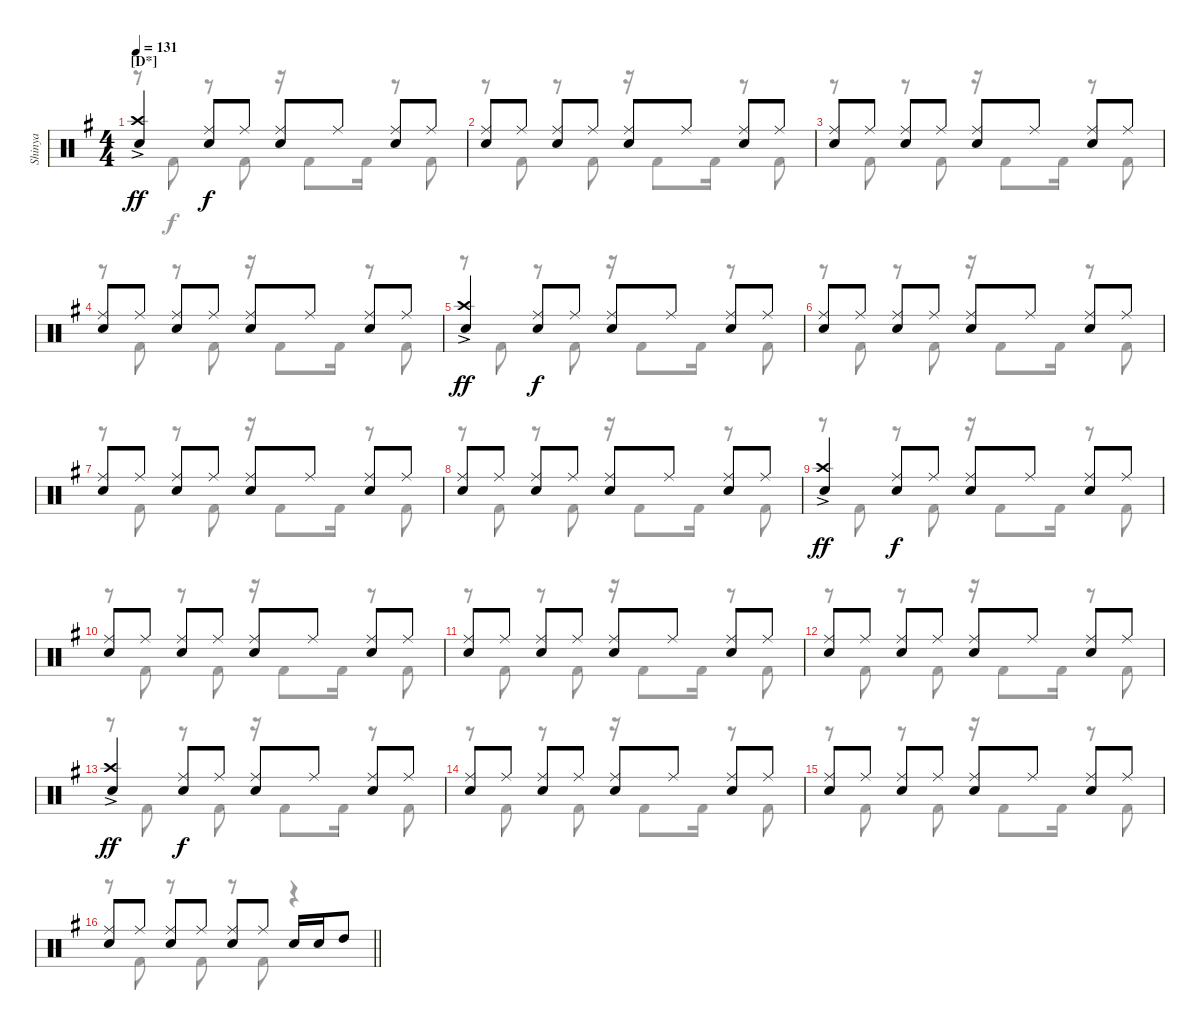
\track ("Shinya" "Shinya") {instrument percussion}
\staff {score}
\articulation defaults
\voice
\ts (4 4)
\section ("" "[D*]")
\tempo 131
\clef neutral
\ks eminor
("Crash high (hit)"{ac} "Snare (hit) 2").4{dy ff} ("Ride (middle)" "Snare (hit) 2").8{dy f} "Ride (middle)".8 ("Ride (middle)" "Snare (hit) 2").8 "Ride (middle)".8 ("Ride (middle)" "Snare (hit) 2").8 "Ride (middle)".8 |
("Ride (middle)" "Snare (hit) 2").8 "Ride (middle)".8 ("Ride (middle)" "Snare (hit) 2").8 "Ride (middle)".8 ("Ride (middle)" "Snare (hit) 2").8 "Ride (middle)".8 ("Ride (middle)" "Snare (hit) 2").8 "Ride (middle)".8 |
("Ride (middle)" "Snare (hit) 2").8 "Ride (middle)".8 ("Ride (middle)" "Snare (hit) 2").8 "Ride (middle)".8 ("Ride (middle)" "Snare (hit) 2").8 "Ride (middle)".8 ("Ride (middle)" "Snare (hit) 2").8 "Ride (middle)".8 |
("Ride (middle)" "Snare (hit) 2").8 "Ride (middle)".8 ("Ride (middle)" "Snare (hit) 2").8 "Ride (middle)".8 ("Ride (middle)" "Snare (hit) 2").8 "Ride (middle)".8 ("Ride (middle)" "Snare (hit) 2").8 "Ride (middle)".8 |
("Crash high (hit)"{ac} "Snare (hit) 2").4{dy ff} ("Ride (middle)" "Snare (hit) 2").8{dy f} "Ride (middle)".8 ("Ride (middle)" "Snare (hit) 2").8 "Ride (middle)".8 ("Ride (middle)" "Snare (hit) 2").8 "Ride (middle)".8 |
("Ride (middle)" "Snare (hit) 2").8 "Ride (middle)".8 ("Ride (middle)" "Snare (hit) 2").8 "Ride (middle)".8 ("Ride (middle)" "Snare (hit) 2").8 "Ride (middle)".8 ("Ride (middle)" "Snare (hit) 2").8 "Ride (middle)".8 |
("Ride (middle)" "Snare (hit) 2").8 "Ride (middle)".8 ("Ride (middle)" "Snare (hit) 2").8 "Ride (middle)".8 ("Ride (middle)" "Snare (hit) 2").8 "Ride (middle)".8 ("Ride (middle)" "Snare (hit) 2").8 "Ride (middle)".8 |
("Ride (middle)" "Snare (hit) 2").8 "Ride (middle)".8 ("Ride (middle)" "Snare (hit) 2").8 "Ride (middle)".8 ("Ride (middle)" "Snare (hit) 2").8 "Ride (middle)".8 ("Ride (middle)" "Snare (hit) 2").8 "Ride (middle)".8 |
("Crash high (hit)"{ac} "Snare (hit) 2").4{dy ff} ("Ride (middle)" "Snare (hit) 2").8{dy f} "Ride (middle)".8 ("Ride (middle)" "Snare (hit) 2").8 "Ride (middle)".8 ("Ride (middle)" "Snare (hit) 2").8 "Ride (middle)".8 |
("Ride (middle)" "Snare (hit) 2").8 "Ride (middle)".8 ("Ride (middle)" "Snare (hit) 2").8 "Ride (middle)".8 ("Ride (middle)" "Snare (hit) 2").8 "Ride (middle)".8 ("Ride (middle)" "Snare (hit) 2").8 "Ride (middle)".8 |
("Ride (middle)" "Snare (hit) 2").8 "Ride (middle)".8 ("Ride (middle)" "Snare (hit) 2").8 "Ride (middle)".8 ("Ride (middle)" "Snare (hit) 2").8 "Ride (middle)".8 ("Ride (middle)" "Snare (hit) 2").8 "Ride (middle)".8 |
("Ride (middle)" "Snare (hit) 2").8 "Ride (middle)".8 ("Ride (middle)" "Snare (hit) 2").8 "Ride (middle)".8 ("Ride (middle)" "Snare (hit) 2").8 "Ride (middle)".8 ("Ride (middle)" "Snare (hit) 2").8 "Ride (middle)".8 |
("Crash high (hit)"{ac} "Snare (hit) 2").4{dy ff} ("Ride (middle)" "Snare (hit) 2").8{dy f} "Ride (middle)".8 ("Ride (middle)" "Snare (hit) 2").8 "Ride (middle)".8 ("Ride (middle)" "Snare (hit) 2").8 "Ride (middle)".8 |
("Ride (middle)" "Snare (hit) 2").8 "Ride (middle)".8 ("Ride (middle)" "Snare (hit) 2").8 "Ride (middle)".8 ("Ride (middle)" "Snare (hit) 2").8 "Ride (middle)".8 ("Ride (middle)" "Snare (hit) 2").8 "Ride (middle)".8 |
("Ride (middle)" "Snare (hit) 2").8 "Ride (middle)".8 ("Ride (middle)" "Snare (hit) 2").8 "Ride (middle)".8 ("Ride (middle)" "Snare (hit) 2").8 "Ride (middle)".8 ("Ride (middle)" "Snare (hit) 2").8 "Ride (middle)".8 |
\barLineRight lightlight
("Ride (middle)" "Snare (hit) 2").8 "Ride (middle)".8 ("Ride (middle)" "Snare (hit) 2").8 "Ride (middle)".8 ("Ride (middle)" "Snare (hit) 2").8 "Ride (middle)".8 "Snare (hit) 2".16 "Snare (hit) 2".16 "High Tom (hit)".8
\voice
\clef neutral
\ottava regular
\simile none
\ks eminor
r.8{dy f} "Kick (hit) 2".8 r.8 "Kick (hit) 2".8 r.16 "Kick (hit) 2".8 "Kick (hit) 2".16 r.8 "Kick (hit) 2".8 |
r.8 "Kick (hit) 2".8 r.8 "Kick (hit) 2".8 r.16 "Kick (hit) 2".8 "Kick (hit) 2".16 r.8 "Kick (hit) 2".8 |
r.8 "Kick (hit) 2".8 r.8 "Kick (hit) 2".8 r.16 "Kick (hit) 2".8 "Kick (hit) 2".16 r.8 "Kick (hit) 2".8 |
r.8 "Kick (hit) 2".8 r.8 "Kick (hit) 2".8 r.16 "Kick (hit) 2".8 "Kick (hit) 2".16 r.8 "Kick (hit) 2".8 |
r.8 "Kick (hit) 2".8 r.8 "Kick (hit) 2".8 r.16 "Kick (hit) 2".8 "Kick (hit) 2".16 r.8 "Kick (hit) 2".8 |
r.8 "Kick (hit) 2".8 r.8 "Kick (hit) 2".8 r.16 "Kick (hit) 2".8 "Kick (hit) 2".16 r.8 "Kick (hit) 2".8 |
r.8 "Kick (hit) 2".8 r.8 "Kick (hit) 2".8 r.16 "Kick (hit) 2".8 "Kick (hit) 2".16 r.8 "Kick (hit) 2".8 |
r.8 "Kick (hit) 2".8 r.8 "Kick (hit) 2".8 r.16 "Kick (hit) 2".8 "Kick (hit) 2".16 r.8 "Kick (hit) 2".8 |
r.8 "Kick (hit) 2".8 r.8 "Kick (hit) 2".8 r.16 "Kick (hit) 2".8 "Kick (hit) 2".16 r.8 "Kick (hit) 2".8 |
r.8 "Kick (hit) 2".8 r.8 "Kick (hit) 2".8 r.16 "Kick (hit) 2".8 "Kick (hit) 2".16 r.8 "Kick (hit) 2".8 |
r.8 "Kick (hit) 2".8 r.8 "Kick (hit) 2".8 r.16 "Kick (hit) 2".8 "Kick (hit) 2".16 r.8 "Kick (hit) 2".8 |
r.8 "Kick (hit) 2".8 r.8 "Kick (hit) 2".8 r.16 "Kick (hit) 2".8 "Kick (hit) 2".16 r.8 "Kick (hit) 2".8 |
r.8 "Kick (hit) 2".8 r.8 "Kick (hit) 2".8 r.16 "Kick (hit) 2".8 "Kick (hit) 2".16 r.8 "Kick (hit) 2".8 |
r.8 "Kick (hit) 2".8 r.8 "Kick (hit) 2".8 r.16 "Kick (hit) 2".8 "Kick (hit) 2".16 r.8 "Kick (hit) 2".8 |
r.8 "Kick (hit) 2".8 r.8 "Kick (hit) 2".8 r.16 "Kick (hit) 2".8 "Kick (hit) 2".16 r.8 "Kick (hit) 2".8 |
\barLineRight lightlight
r.8 "Kick (hit) 2".8 r.8 "Kick (hit) 2".8 r.8 "Kick (hit) 2".8 r.4
